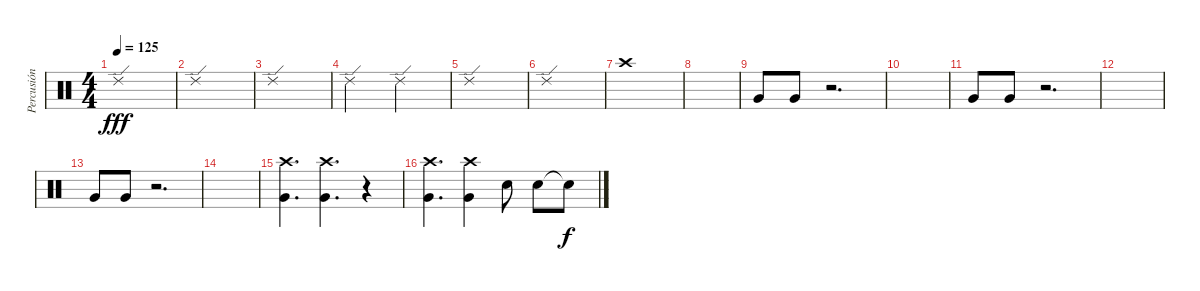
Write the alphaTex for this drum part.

\track ("Percusión" "Percusión") {instrument percussion}
\staff {score}
\articulation defaults
\ts (4 4)
\tempo 125
\clef neutral
\ks c "Ride (edge) 2".1{dy fff}
|
"Ride (edge) 2".1 |
"Ride (edge) 2".1 |
"Ride (edge) 2".2 "Ride (edge) 2".2 |
"Ride (edge) 2".1 |
"Ride (edge) 2".1 |
"Crash high (hit)".1 |
|
"Very Low Tom (hit)".8 "Very Low Tom (hit)".8 r.2{d} |
|
"Very Low Tom (hit)".8 "Very Low Tom (hit)".8 r.2{d} |
|
"Very Low Tom (hit)".8 "Very Low Tom (hit)".8 r.2{d} |
|
("Crash high (hit)" "Very Low Tom (hit)").4{d} ("Crash high (hit)" "Very Low Tom (hit)").4{d} r.4 |
("Crash high (hit)" "Very Low Tom (hit)").4{d} ("Crash high (hit)" "Very Low Tom (hit)").4 "Snare (hit) 2".8 "Electric Snare (hit)".8 "Electric Snare (hit)"{t}.8{dy f}
